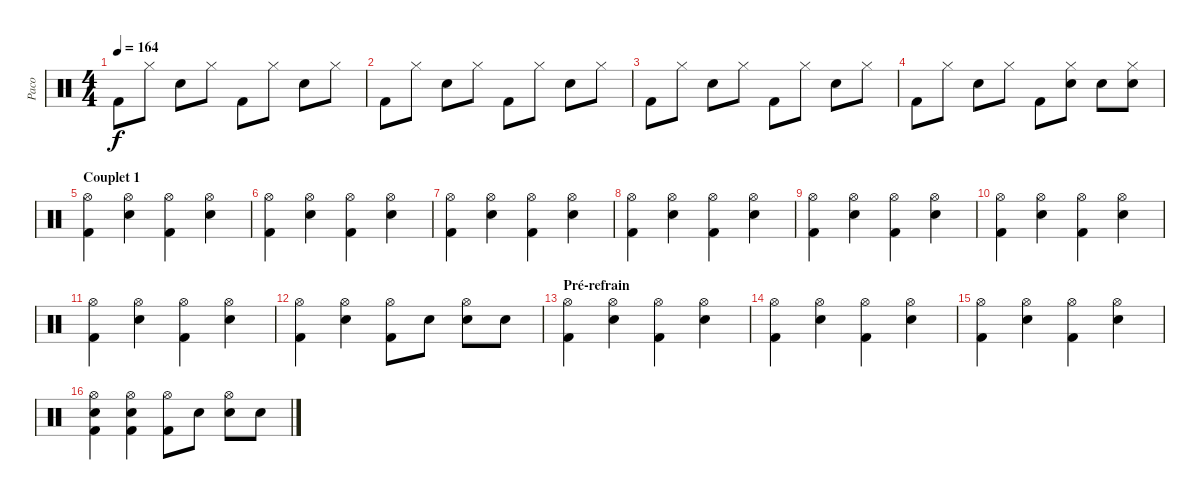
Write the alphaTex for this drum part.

\track ("Paco" "Paco") {instrument percussion}
\staff {score}
\articulation defaults
\ts (4 4)
\tempo 164
\clef neutral
\ks c "Kick (hit) 2".8{dy f} "Hi-Hat (closed)".8 "Electric Snare (hit)".8 "Hi-Hat (closed)".8 "Kick (hit) 2".8 "Hi-Hat (closed)".8 "Electric Snare (hit)".8 "Hi-Hat (closed)".8
|
"Kick (hit) 2".8 "Hi-Hat (closed)".8 "Electric Snare (hit)".8 "Hi-Hat (closed)".8 "Kick (hit) 2".8 "Hi-Hat (closed)".8 "Electric Snare (hit)".8 "Hi-Hat (closed)".8 |
"Kick (hit) 2".8 "Hi-Hat (closed)".8 "Electric Snare (hit)".8 "Hi-Hat (closed)".8 "Kick (hit) 2".8 "Hi-Hat (closed)".8 "Electric Snare (hit)".8 "Hi-Hat (closed)".8 |
"Kick (hit) 2".8 "Hi-Hat (closed)".8 "Electric Snare (hit)".8 "Hi-Hat (closed)".8 "Kick (hit) 2".8 ("Hi-Hat (closed)" "Electric Snare (hit)").8 "Electric Snare (hit)".8 ("Hi-Hat (closed)" "Electric Snare (hit)").8 |
\section ("" "Couplet 1")
("Hi-Hat (open)" "Kick (hit) 2").4 ("Hi-Hat (open)" "Electric Snare (hit)").4 ("Hi-Hat (open)" "Kick (hit) 2").4 ("Hi-Hat (open)" "Electric Snare (hit)").4 |
("Hi-Hat (open)" "Kick (hit) 2").4 ("Hi-Hat (open)" "Electric Snare (hit)").4 ("Hi-Hat (open)" "Kick (hit) 2").4 ("Hi-Hat (open)" "Electric Snare (hit)").4 |
("Hi-Hat (open)" "Kick (hit) 2").4 ("Hi-Hat (open)" "Electric Snare (hit)").4 ("Hi-Hat (open)" "Kick (hit) 2").4 ("Hi-Hat (open)" "Electric Snare (hit)").4 |
("Hi-Hat (open)" "Kick (hit) 2").4 ("Hi-Hat (open)" "Electric Snare (hit)").4 ("Hi-Hat (open)" "Kick (hit) 2").4 ("Hi-Hat (open)" "Electric Snare (hit)").4 |
("Hi-Hat (open)" "Kick (hit) 2").4 ("Hi-Hat (open)" "Electric Snare (hit)").4 ("Hi-Hat (open)" "Kick (hit) 2").4 ("Hi-Hat (open)" "Electric Snare (hit)").4 |
("Hi-Hat (open)" "Kick (hit) 2").4 ("Hi-Hat (open)" "Electric Snare (hit)").4 ("Hi-Hat (open)" "Kick (hit) 2").4 ("Hi-Hat (open)" "Electric Snare (hit)").4 |
("Hi-Hat (open)" "Kick (hit) 2").4 ("Hi-Hat (open)" "Electric Snare (hit)").4 ("Hi-Hat (open)" "Kick (hit) 2").4 ("Hi-Hat (open)" "Electric Snare (hit)").4 |
("Hi-Hat (open)" "Kick (hit) 2").4 ("Hi-Hat (open)" "Electric Snare (hit)").4 ("Hi-Hat (open)" "Kick (hit) 2").8 "Electric Snare (hit)".8 ("Hi-Hat (open)" "Electric Snare (hit)").8 "Electric Snare (hit)".8 |
\section ("" "Pré-refrain")
("Hi-Hat (open)" "Kick (hit) 2").4 ("Hi-Hat (open)" "Electric Snare (hit)").4 ("Hi-Hat (open)" "Kick (hit) 2").4 ("Hi-Hat (open)" "Electric Snare (hit)").4 |
("Hi-Hat (open)" "Kick (hit) 2").4 ("Hi-Hat (open)" "Electric Snare (hit)").4 ("Hi-Hat (open)" "Kick (hit) 2").4 ("Hi-Hat (open)" "Electric Snare (hit)").4 |
("Hi-Hat (open)" "Kick (hit) 2").4 ("Hi-Hat (open)" "Electric Snare (hit)").4 ("Hi-Hat (open)" "Kick (hit) 2").4 ("Hi-Hat (open)" "Electric Snare (hit)").4 |
("Hi-Hat (open)" "Electric Snare (hit)" "Kick (hit) 2").4 ("Hi-Hat (open)" "Electric Snare (hit)" "Kick (hit) 2").4 ("Hi-Hat (open)" "Kick (hit) 2").8 "Electric Snare (hit)".8 ("Hi-Hat (open)" "Electric Snare (hit)").8 "Electric Snare (hit)".8
